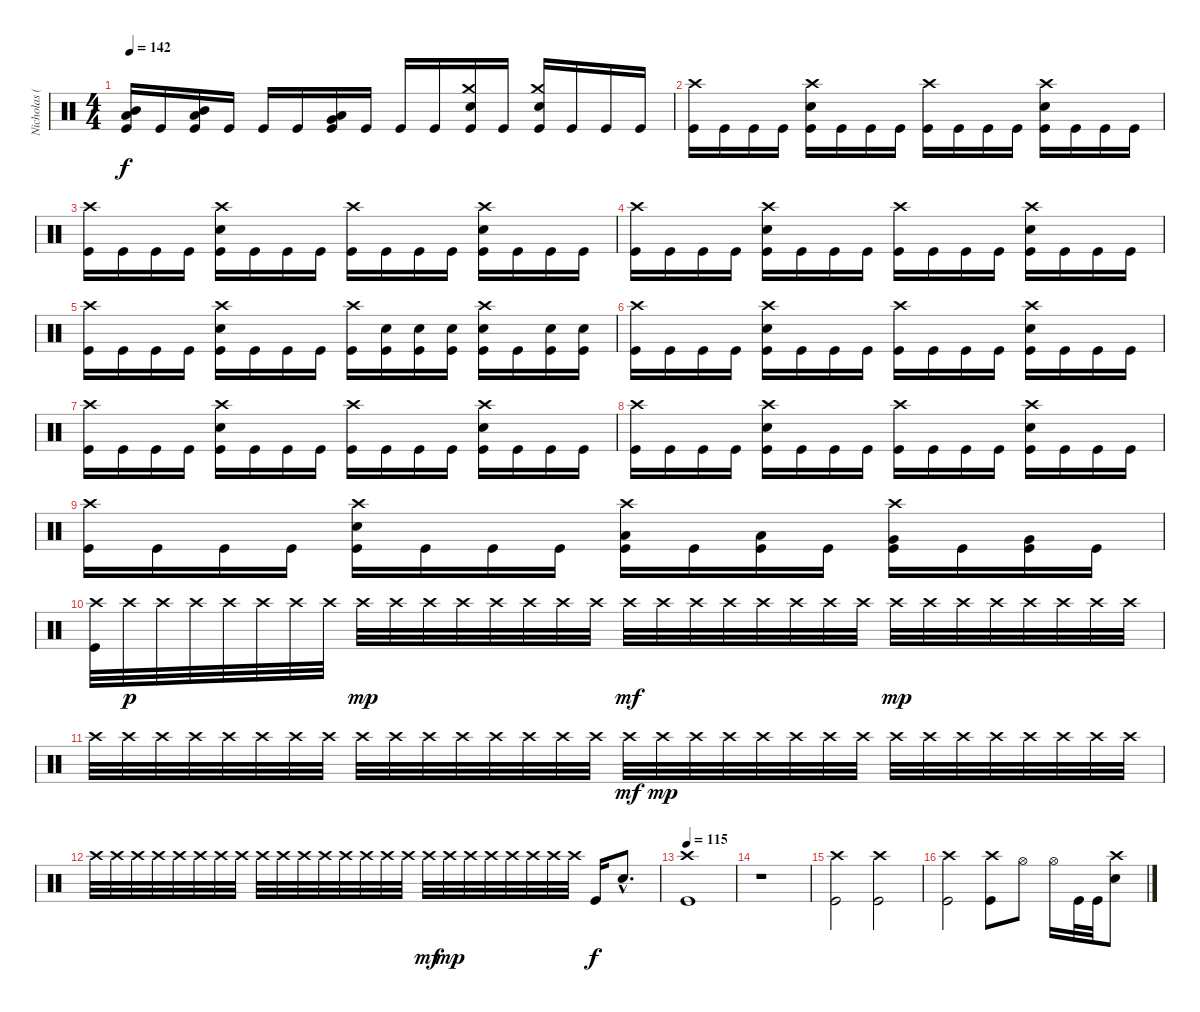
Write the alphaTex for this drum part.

\track ("Nicholas (Drums)" "Nicholas (") {instrument percussion}
\staff {score}
\articulation defaults
\ts (4 4)
\tempo 142
\clef neutral
\ks c
("Mid Tom (hit)" "Low Tom (hit)" "Kick (hit)").16{bd 60 dy f} "Kick (hit)".16 ("Mid Tom (hit)" "Low Tom (hit)" "Kick (hit)").16{bd 60} "Kick (hit)".16 "Kick (hit)".16 "Kick (hit)".16 ("Low Tom (hit)" "Very Low Tom (hit)" "Kick (hit)").16{bd 60} "Kick (hit)".16 "Kick (hit)".16 "Kick (hit)".16 ("Crash medium (hit)" "Electric Snare (hit)" "Kick (hit)").16 "Kick (hit)".16 ("Crash medium (hit)" "Electric Snare (hit)" "Kick (hit)").16 "Kick (hit)".16 "Kick (hit)".16 "Kick (hit)".16 |
("Crash high (hit)" "Kick (hit)").16 "Kick (hit)".16 "Kick (hit)".16 "Kick (hit)".16 ("Crash high (hit)" "Electric Snare (hit)" "Kick (hit)").16 "Kick (hit)".16 "Kick (hit)".16 "Kick (hit)".16 ("Crash high (hit)" "Kick (hit)").16 "Kick (hit)".16 "Kick (hit)".16 "Kick (hit)".16 ("Crash high (hit)" "Electric Snare (hit)" "Kick (hit)").16 "Kick (hit)".16 "Kick (hit)".16 "Kick (hit)".16 |
("Crash high (hit)" "Kick (hit)").16 "Kick (hit)".16 "Kick (hit)".16 "Kick (hit)".16 ("Crash high (hit)" "Electric Snare (hit)" "Kick (hit)").16 "Kick (hit)".16 "Kick (hit)".16 "Kick (hit)".16 ("Crash high (hit)" "Kick (hit)").16 "Kick (hit)".16 "Kick (hit)".16 "Kick (hit)".16 ("Crash high (hit)" "Electric Snare (hit)" "Kick (hit)").16 "Kick (hit)".16 "Kick (hit)".16 "Kick (hit)".16 |
("Crash high (hit)" "Kick (hit)").16 "Kick (hit)".16 "Kick (hit)".16 "Kick (hit)".16 ("Crash high (hit)" "Electric Snare (hit)" "Kick (hit)").16 "Kick (hit)".16 "Kick (hit)".16 "Kick (hit)".16 ("Crash high (hit)" "Kick (hit)").16 "Kick (hit)".16 "Kick (hit)".16 "Kick (hit)".16 ("Crash high (hit)" "Electric Snare (hit)" "Kick (hit)").16 "Kick (hit)".16 "Kick (hit)".16 "Kick (hit)".16 |
("Crash high (hit)" "Kick (hit)").16 "Kick (hit)".16 "Kick (hit)".16 "Kick (hit)".16 ("Crash high (hit)" "Electric Snare (hit)" "Kick (hit)").16 "Kick (hit)".16 "Kick (hit)".16 "Kick (hit)".16 ("Crash high (hit)" "Kick (hit)").16 ("Electric Snare (hit)" "Kick (hit)").16 ("Electric Snare (hit)" "Kick (hit)").16 ("Electric Snare (hit)" "Kick (hit)").16 ("Crash high (hit)" "Electric Snare (hit)" "Kick (hit)").16 "Kick (hit)".16 ("Electric Snare (hit)" "Kick (hit)").16 ("Electric Snare (hit)" "Kick (hit)").16 |
("Crash high (hit)" "Kick (hit)").16 "Kick (hit)".16 "Kick (hit)".16 "Kick (hit)".16 ("Crash high (hit)" "Electric Snare (hit)" "Kick (hit)").16 "Kick (hit)".16 "Kick (hit)".16 "Kick (hit)".16 ("Crash high (hit)" "Kick (hit)").16 "Kick (hit)".16 "Kick (hit)".16 "Kick (hit)".16 ("Crash high (hit)" "Electric Snare (hit)" "Kick (hit)").16 "Kick (hit)".16 "Kick (hit)".16 "Kick (hit)".16 |
("Crash high (hit)" "Kick (hit)").16 "Kick (hit)".16 "Kick (hit)".16 "Kick (hit)".16 ("Crash high (hit)" "Electric Snare (hit)" "Kick (hit)").16 "Kick (hit)".16 "Kick (hit)".16 "Kick (hit)".16 ("Crash high (hit)" "Kick (hit)").16 "Kick (hit)".16 "Kick (hit)".16 "Kick (hit)".16 ("Crash high (hit)" "Electric Snare (hit)" "Kick (hit)").16 "Kick (hit)".16 "Kick (hit)".16 "Kick (hit)".16 |
("Crash high (hit)" "Kick (hit)").16 "Kick (hit)".16 "Kick (hit)".16 "Kick (hit)".16 ("Crash high (hit)" "Electric Snare (hit)" "Kick (hit)").16 "Kick (hit)".16 "Kick (hit)".16 "Kick (hit)".16 ("Crash high (hit)" "Kick (hit)").16 "Kick (hit)".16 "Kick (hit)".16 "Kick (hit)".16 ("Crash high (hit)" "Electric Snare (hit)" "Kick (hit)").16 "Kick (hit)".16 "Kick (hit)".16 "Kick (hit)".16 |
("Crash high (hit)" "Kick (hit)").16 "Kick (hit)".16 "Kick (hit)".16 "Kick (hit)".16 ("Crash high (hit)" "Electric Snare (hit)" "Kick (hit)").16 "Kick (hit)".16 "Kick (hit)".16 "Kick (hit)".16 ("Crash high (hit)" "Low Tom (hit)" "Kick (hit)").16 "Kick (hit)".16 ("Low Tom (hit)" "Kick (hit)").16 "Kick (hit)".16 ("Crash high (hit)" "Very Low Tom (hit)" "Kick (hit)").16 "Kick (hit)".16 ("Very Low Tom (hit)" "Kick (hit)").16 "Kick (hit)".16 |
("Crash high (hit)" "Kick (hit)").32 "Crash high (hit)".32{dy p} "Crash high (hit)".32 "Crash high (hit)".32 "Crash high (hit)".32 "Crash high (hit)".32 "Crash high (hit)".32 "Crash high (hit)".32 "Crash high (hit)".32{dy mp} "Crash high (hit)".32 "Crash high (hit)".32 "Crash high (hit)".32 "Crash high (hit)".32 "Crash high (hit)".32 "Crash high (hit)".32 "Crash high (hit)".32 "Crash high (hit)".32{dy mf} "Crash high (hit)".32 "Crash high (hit)".32 "Crash high (hit)".32 "Crash high (hit)".32 "Crash high (hit)".32 "Crash high (hit)".32 "Crash high (hit)".32 "Crash high (hit)".32{dy mp} "Crash high (hit)".32 "Crash high (hit)".32 "Crash high (hit)".32 "Crash high (hit)".32 "Crash high (hit)".32 "Crash high (hit)".32 "Crash high (hit)".32 |
"Crash high (hit)".32 "Crash high (hit)".32 "Crash high (hit)".32 "Crash high (hit)".32 "Crash high (hit)".32 "Crash high (hit)".32 "Crash high (hit)".32 "Crash high (hit)".32 "Crash high (hit)".32 "Crash high (hit)".32 "Crash high (hit)".32 "Crash high (hit)".32 "Crash high (hit)".32 "Crash high (hit)".32 "Crash high (hit)".32 "Crash high (hit)".32 "Crash high (hit)".32{dy mf} "Crash high (hit)".32{dy mp} "Crash high (hit)".32 "Crash high (hit)".32 "Crash high (hit)".32 "Crash high (hit)".32 "Crash high (hit)".32 "Crash high (hit)".32 "Crash high (hit)".32 "Crash high (hit)".32 "Crash high (hit)".32 "Crash high (hit)".32 "Crash high (hit)".32 "Crash high (hit)".32 "Crash high (hit)".32 "Crash high (hit)".32 |
"Crash high (hit)".32 "Crash high (hit)".32 "Crash high (hit)".32 "Crash high (hit)".32 "Crash high (hit)".32 "Crash high (hit)".32 "Crash high (hit)".32 "Crash high (hit)".32 "Crash high (hit)".32 "Crash high (hit)".32 "Crash high (hit)".32 "Crash high (hit)".32 "Crash high (hit)".32 "Crash high (hit)".32 "Crash high (hit)".32 "Crash high (hit)".32 "Crash high (hit)".32{dy mf} "Crash high (hit)".32{dy mp} "Crash high (hit)".32 "Crash high (hit)".32 "Crash high (hit)".32 "Crash high (hit)".32 "Crash high (hit)".32 "Crash high (hit)".32 "Kick (hit)".16{dy f} "Electric Snare (hit)"{hac}.8{d} |
\tempo 115
("Crash high (hit)" "Kick (hit)").1 |
r.1 |
("Crash high (hit)" "Kick (hit)").2 ("Crash high (hit)" "Kick (hit)").2 |
("Crash high (hit)" "Kick (hit)").2 ("Crash high (hit)" "Kick (hit)").8 "Hi-Hat (open)".8 "Hi-Hat (open)".16 "Kick (hit)".32 "Kick (hit)".32 ("Crash high (hit)" "Electric Snare (hit)").8
